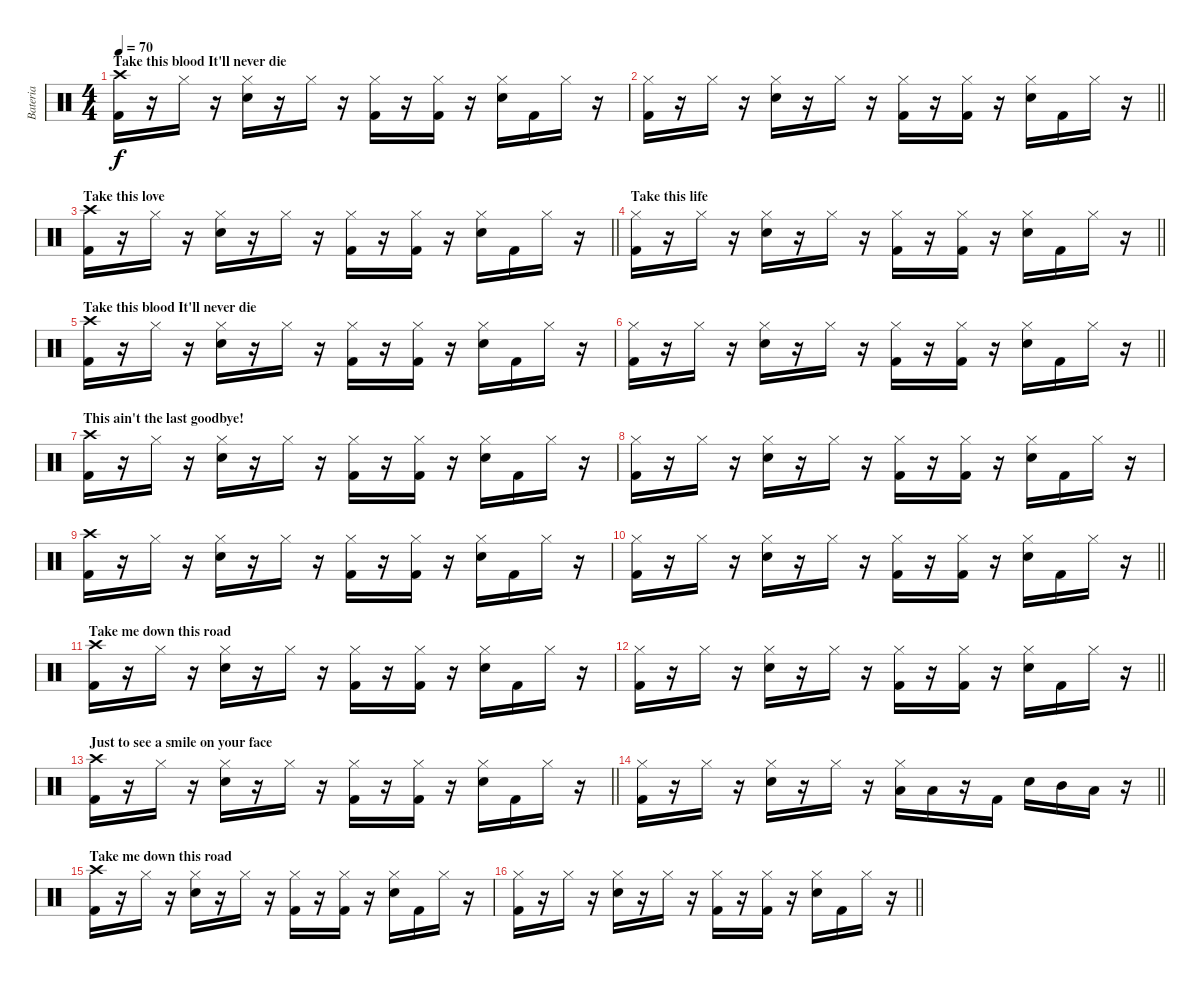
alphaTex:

\track ("Bateria" "Bateria") {instrument percussion}
\staff {score}
\articulation defaults
\ts (4 4)
\section ("" "Take this blood It'll never die")
\tempo 70
\clef neutral
\ks c
("Crash high (hit)" "Kick (hit) 2").16{dy f} r.16 "Hi-Hat (closed)".16 r.16 ("Hi-Hat (closed)" "Electric Snare (hit)").16 r.16 "Hi-Hat (closed)".16 r.16 ("Hi-Hat (closed)" "Kick (hit) 2").16 r.16 ("Hi-Hat (closed)" "Kick (hit) 2").16 r.16 ("Hi-Hat (closed)" "Electric Snare (hit)").16 "Kick (hit) 2".16 "Hi-Hat (closed)".16 r.16 |
\barLineRight lightlight
("Hi-Hat (closed)" "Kick (hit) 2").16 r.16 "Hi-Hat (closed)".16 r.16 ("Hi-Hat (closed)" "Electric Snare (hit)").16 r.16 "Hi-Hat (closed)".16 r.16 ("Hi-Hat (closed)" "Kick (hit) 2").16 r.16 ("Hi-Hat (closed)" "Kick (hit) 2").16 r.16 ("Hi-Hat (closed)" "Electric Snare (hit)").16 "Kick (hit) 2".16 "Hi-Hat (closed)".16 r.16 |
\section ("" "Take this love")
\barLineRight lightlight
("Crash high (hit)" "Kick (hit) 2").16 r.16 "Hi-Hat (closed)".16 r.16 ("Hi-Hat (closed)" "Electric Snare (hit)").16 r.16 "Hi-Hat (closed)".16 r.16 ("Hi-Hat (closed)" "Kick (hit) 2").16 r.16 ("Hi-Hat (closed)" "Kick (hit) 2").16 r.16 ("Hi-Hat (closed)" "Electric Snare (hit)").16 "Kick (hit) 2".16 "Hi-Hat (closed)".16 r.16 |
\section ("" "Take this life")
\barLineRight lightlight
("Hi-Hat (closed)" "Kick (hit) 2").16 r.16 "Hi-Hat (closed)".16 r.16 ("Hi-Hat (closed)" "Electric Snare (hit)").16 r.16 "Hi-Hat (closed)".16 r.16 ("Hi-Hat (closed)" "Kick (hit) 2").16 r.16 ("Hi-Hat (closed)" "Kick (hit) 2").16 r.16 ("Hi-Hat (closed)" "Electric Snare (hit)").16 "Kick (hit) 2".16 "Hi-Hat (closed)".16 r.16 |
\section ("" "Take this blood It'll never die")
("Crash high (hit)" "Kick (hit) 2").16 r.16 "Hi-Hat (closed)".16 r.16 ("Hi-Hat (closed)" "Electric Snare (hit)").16 r.16 "Hi-Hat (closed)".16 r.16 ("Hi-Hat (closed)" "Kick (hit) 2").16 r.16 ("Hi-Hat (closed)" "Kick (hit) 2").16 r.16 ("Hi-Hat (closed)" "Electric Snare (hit)").16 "Kick (hit) 2".16 "Hi-Hat (closed)".16 r.16 |
\barLineRight lightlight
("Hi-Hat (closed)" "Kick (hit) 2").16 r.16 "Hi-Hat (closed)".16 r.16 ("Hi-Hat (closed)" "Electric Snare (hit)").16 r.16 "Hi-Hat (closed)".16 r.16 ("Hi-Hat (closed)" "Kick (hit) 2").16 r.16 ("Hi-Hat (closed)" "Kick (hit) 2").16 r.16 ("Hi-Hat (closed)" "Electric Snare (hit)").16 "Kick (hit) 2".16 "Hi-Hat (closed)".16 r.16 |
\section ("" "This ain't the last goodbye!")
("Crash high (hit)" "Kick (hit) 2").16 r.16 "Hi-Hat (closed)".16 r.16 ("Hi-Hat (closed)" "Electric Snare (hit)").16 r.16 "Hi-Hat (closed)".16 r.16 ("Hi-Hat (closed)" "Kick (hit) 2").16 r.16 ("Hi-Hat (closed)" "Kick (hit) 2").16 r.16 ("Hi-Hat (closed)" "Electric Snare (hit)").16 "Kick (hit) 2".16 "Hi-Hat (closed)".16 r.16 |
("Hi-Hat (closed)" "Kick (hit) 2").16 r.16 "Hi-Hat (closed)".16 r.16 ("Hi-Hat (closed)" "Electric Snare (hit)").16 r.16 "Hi-Hat (closed)".16 r.16 ("Hi-Hat (closed)" "Kick (hit) 2").16 r.16 ("Hi-Hat (closed)" "Kick (hit) 2").16 r.16 ("Hi-Hat (closed)" "Electric Snare (hit)").16 "Kick (hit) 2".16 "Hi-Hat (closed)".16 r.16 |
("Crash high (hit)" "Kick (hit) 2").16 r.16 "Hi-Hat (closed)".16 r.16 ("Hi-Hat (closed)" "Electric Snare (hit)").16 r.16 "Hi-Hat (closed)".16 r.16 ("Hi-Hat (closed)" "Kick (hit) 2").16 r.16 ("Hi-Hat (closed)" "Kick (hit) 2").16 r.16 ("Hi-Hat (closed)" "Electric Snare (hit)").16 "Kick (hit) 2".16 "Hi-Hat (closed)".16 r.16 |
\barLineRight lightlight
("Hi-Hat (closed)" "Kick (hit) 2").16 r.16 "Hi-Hat (closed)".16 r.16 ("Hi-Hat (closed)" "Electric Snare (hit)").16 r.16 "Hi-Hat (closed)".16 r.16 ("Hi-Hat (closed)" "Kick (hit) 2").16 r.16 ("Hi-Hat (closed)" "Kick (hit) 2").16 r.16 ("Hi-Hat (closed)" "Electric Snare (hit)").16 "Kick (hit) 2".16 "Hi-Hat (closed)".16 r.16 |
\section ("" "Take me down this road")
("Crash high (hit)" "Kick (hit) 2").16 r.16 "Hi-Hat (closed)".16 r.16 ("Hi-Hat (closed)" "Electric Snare (hit)").16 r.16 "Hi-Hat (closed)".16 r.16 ("Hi-Hat (closed)" "Kick (hit) 2").16 r.16 ("Hi-Hat (closed)" "Kick (hit) 2").16 r.16 ("Hi-Hat (closed)" "Electric Snare (hit)").16 "Kick (hit) 2".16 "Hi-Hat (closed)".16 r.16 |
\barLineRight lightlight
("Hi-Hat (closed)" "Kick (hit) 2").16 r.16 "Hi-Hat (closed)".16 r.16 ("Hi-Hat (closed)" "Electric Snare (hit)").16 r.16 "Hi-Hat (closed)".16 r.16 ("Hi-Hat (closed)" "Kick (hit) 2").16 r.16 ("Hi-Hat (closed)" "Kick (hit) 2").16 r.16 ("Hi-Hat (closed)" "Electric Snare (hit)").16 "Kick (hit) 2".16 "Hi-Hat (closed)".16 r.16 |
\section ("" "Just to see a smile on your face")
\barLineRight lightlight
("Crash high (hit)" "Kick (hit) 2").16 r.16 "Hi-Hat (closed)".16 r.16 ("Hi-Hat (closed)" "Electric Snare (hit)").16 r.16 "Hi-Hat (closed)".16 r.16 ("Hi-Hat (closed)" "Kick (hit) 2").16 r.16 ("Hi-Hat (closed)" "Kick (hit) 2").16 r.16 ("Hi-Hat (closed)" "Electric Snare (hit)").16 "Kick (hit) 2".16 "Hi-Hat (closed)".16 r.16 |
\barLineRight lightlight
("Hi-Hat (closed)" "Kick (hit) 2").16 r.16 "Hi-Hat (closed)".16 r.16 ("Hi-Hat (closed)" "Electric Snare (hit)").16 r.16 "Hi-Hat (closed)".16 r.16 ("Hi-Hat (closed)" "Low Floor Tom (hit)").16 "Low Floor Tom (hit)".16 r.16 "Kick (hit) 2".16 "Electric Snare (hit)".16 "Mid Tom (hit)".16 "Low Tom (hit)".16 r.16 |
\section ("" "Take me down this road")
("Crash high (hit)" "Kick (hit) 2").16 r.16 "Hi-Hat (closed)".16 r.16 ("Hi-Hat (closed)" "Electric Snare (hit)").16 r.16 "Hi-Hat (closed)".16 r.16 ("Hi-Hat (closed)" "Kick (hit) 2").16 r.16 ("Hi-Hat (closed)" "Kick (hit) 2").16 r.16 ("Hi-Hat (closed)" "Electric Snare (hit)").16 "Kick (hit) 2".16 "Hi-Hat (closed)".16 r.16 |
\barLineRight lightlight
("Hi-Hat (closed)" "Kick (hit) 2").16 r.16 "Hi-Hat (closed)".16 r.16 ("Hi-Hat (closed)" "Electric Snare (hit)").16 r.16 "Hi-Hat (closed)".16 r.16 ("Hi-Hat (closed)" "Kick (hit) 2").16 r.16 ("Hi-Hat (closed)" "Kick (hit) 2").16 r.16 ("Hi-Hat (closed)" "Electric Snare (hit)").16 "Kick (hit) 2".16 "Hi-Hat (closed)".16 r.16
